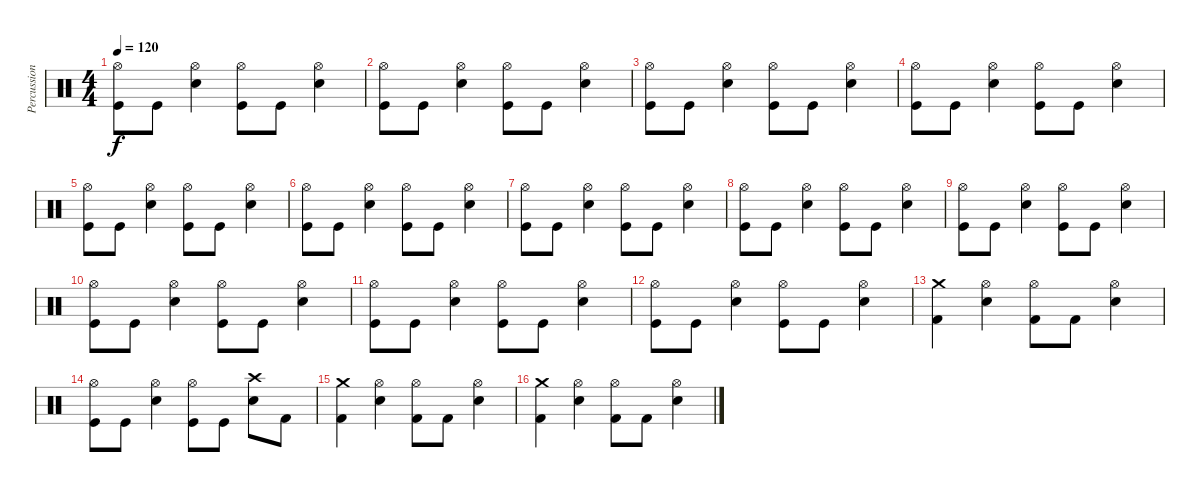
\track ("Percussion" "Percussion") {instrument percussion}
\staff {score}
\articulation defaults
\ts (4 4)
\tempo 120
\clef neutral
\ks c
("Hi-Hat (open)" "Kick (hit)").8{dy f} "Kick (hit)".8 ("Hi-Hat (open)" "Snare (hit) 2").4 ("Hi-Hat (open)" "Kick (hit)").8 "Kick (hit)".8 ("Hi-Hat (open)" "Snare (hit) 2").4 |
("Hi-Hat (open)" "Kick (hit)").8 "Kick (hit)".8 ("Hi-Hat (open)" "Snare (hit) 2").4 ("Hi-Hat (open)" "Kick (hit)").8 "Kick (hit)".8 ("Hi-Hat (open)" "Snare (hit) 2").4 |
("Hi-Hat (open)" "Kick (hit)").8 "Kick (hit)".8 ("Hi-Hat (open)" "Snare (hit) 2").4 ("Hi-Hat (open)" "Kick (hit)").8 "Kick (hit)".8 ("Hi-Hat (open)" "Snare (hit) 2").4 |
("Hi-Hat (open)" "Kick (hit)").8 "Kick (hit)".8 ("Hi-Hat (open)" "Snare (hit) 2").4 ("Hi-Hat (open)" "Kick (hit)").8 "Kick (hit)".8 ("Hi-Hat (open)" "Snare (hit) 2").4 |
("Hi-Hat (open)" "Kick (hit)").8 "Kick (hit)".8 ("Hi-Hat (open)" "Snare (hit) 2").4 ("Hi-Hat (open)" "Kick (hit)").8 "Kick (hit)".8 ("Hi-Hat (open)" "Snare (hit) 2").4 |
("Hi-Hat (open)" "Kick (hit)").8 "Kick (hit)".8 ("Hi-Hat (open)" "Snare (hit) 2").4 ("Hi-Hat (open)" "Kick (hit)").8 "Kick (hit)".8 ("Hi-Hat (open)" "Snare (hit) 2").4 |
("Hi-Hat (open)" "Kick (hit)").8 "Kick (hit)".8 ("Hi-Hat (open)" "Snare (hit) 2").4 ("Hi-Hat (open)" "Kick (hit)").8 "Kick (hit)".8 ("Hi-Hat (open)" "Snare (hit) 2").4 |
("Hi-Hat (open)" "Kick (hit)").8 "Kick (hit)".8 ("Hi-Hat (open)" "Snare (hit) 2").4 ("Hi-Hat (open)" "Kick (hit)").8 "Kick (hit)".8 ("Hi-Hat (open)" "Snare (hit) 2").4 |
("Hi-Hat (open)" "Kick (hit)").8 "Kick (hit)".8 ("Hi-Hat (open)" "Snare (hit) 2").4 ("Hi-Hat (open)" "Kick (hit)").8 "Kick (hit)".8 ("Hi-Hat (open)" "Snare (hit) 2").4 |
("Hi-Hat (open)" "Kick (hit)").8 "Kick (hit)".8 ("Hi-Hat (open)" "Snare (hit) 2").4 ("Hi-Hat (open)" "Kick (hit)").8 "Kick (hit)".8 ("Hi-Hat (open)" "Snare (hit) 2").4 |
("Hi-Hat (open)" "Kick (hit)").8 "Kick (hit)".8 ("Hi-Hat (open)" "Snare (hit) 2").4 ("Hi-Hat (open)" "Kick (hit)").8 "Kick (hit)".8 ("Hi-Hat (open)" "Snare (hit) 2").4 |
("Hi-Hat (open)" "Kick (hit)").8 "Kick (hit)".8 ("Hi-Hat (open)" "Snare (hit) 2").4 ("Hi-Hat (open)" "Kick (hit)").8 "Kick (hit)".8 ("Hi-Hat (open)" "Snare (hit) 2").4 |
("Kick (hit) 2" "Crash medium (hit)").4 ("Snare (hit) 2" "Hi-Hat (open)").4 ("Hi-Hat (open)" "Kick (hit) 2").8 "Kick (hit) 2".8 ("Snare (hit) 2" "Hi-Hat (open)").4 |
("Hi-Hat (open)" "Kick (hit)").8 "Kick (hit)".8 ("Hi-Hat (open)" "Snare (hit) 2").4 ("Hi-Hat (open)" "Kick (hit)").8 "Kick (hit)".8 ("Crash high (hit)" "Snare (hit) 2").8 "Kick (hit) 2".8 |
("Kick (hit) 2" "Crash medium (hit)").4 ("Snare (hit) 2" "Hi-Hat (open)").4 ("Hi-Hat (open)" "Kick (hit) 2").8 "Kick (hit) 2".8 ("Snare (hit) 2" "Hi-Hat (open)").4 |
("Kick (hit) 2" "Crash medium (hit)").4 ("Snare (hit) 2" "Hi-Hat (open)").4 ("Hi-Hat (open)" "Kick (hit) 2").8 "Kick (hit) 2".8 ("Snare (hit) 2" "Hi-Hat (open)").4
